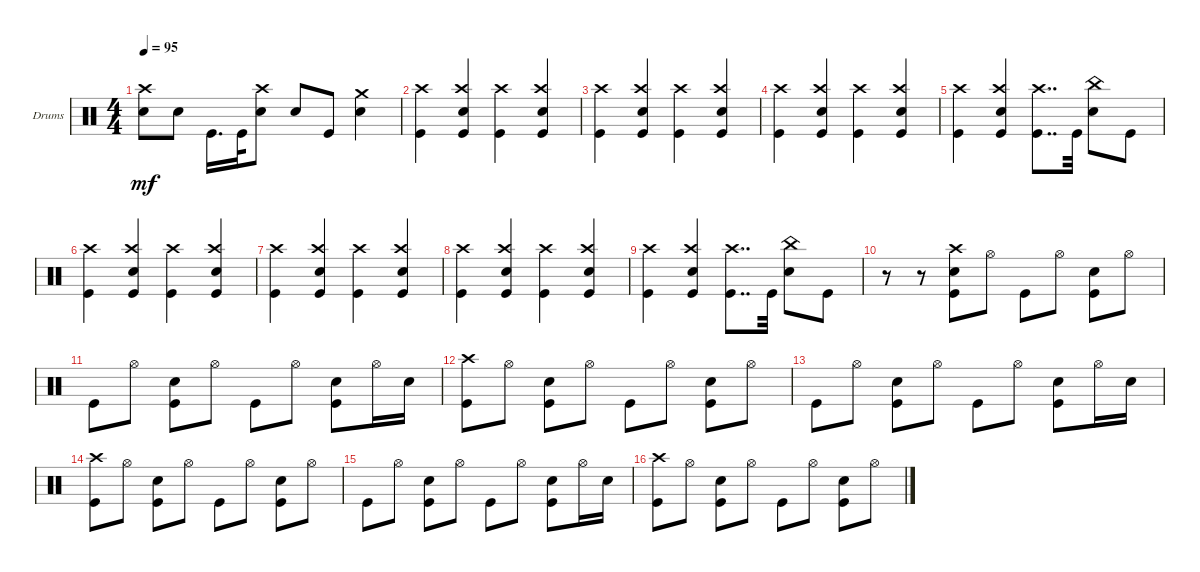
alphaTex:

\defaultSystemsLayout 4
\bracketExtendMode groupsimilarinstruments
\firstSystemTrackNameOrientation horizontal
\otherSystemsTrackNameOrientation horizontal
\track ("Drumkit" "Drums") {instrument percussion}
\staff {score}
\articulation defaults
\ts (4 4)
\tempo 95
\clef neutral
\ks c
("Snare (hit) 2" "Crash high (hit)").8{dy mf} "Snare (hit) 2".8 "Kick (hit)".16{d} "Kick (hit)".32 ("Crash high (hit)" "Snare (hit) 2").8 "Snare (hit) 2".8 "Kick (hit)".8 ("Snare (hit) 2" "Crash medium (hit)").4 |
("Crash high (hit)" "Kick (hit)").4 ("Crash high (hit)" "Snare (hit) 2" "Kick (hit)").4 ("Crash high (hit)" "Kick (hit)").4 ("Crash high (hit)" "Snare (hit) 2" "Kick (hit)").4 |
("Crash high (hit)" "Kick (hit)").4 ("Crash high (hit)" "Snare (hit) 2" "Kick (hit)").4 ("Crash high (hit)" "Kick (hit)").4 ("Crash high (hit)" "Snare (hit) 2" "Kick (hit)").4 |
("Crash high (hit)" "Kick (hit)").4 ("Crash high (hit)" "Snare (hit) 2" "Kick (hit)").4 ("Crash high (hit)" "Kick (hit)").4 ("Crash high (hit)" "Snare (hit) 2" "Kick (hit)").4 |
("Crash high (hit)" "Kick (hit)").4 ("Crash high (hit)" "Snare (hit) 2" "Kick (hit)").4 ("Crash high (hit)" "Kick (hit)").8{dd} "Kick (hit)".32 ("Snare (hit) 2" "China (hit)").8 "Kick (hit)".8 |
("Crash high (hit)" "Kick (hit)").4 ("Crash high (hit)" "Snare (hit) 2" "Kick (hit)").4 ("Crash high (hit)" "Kick (hit)").4 ("Crash high (hit)" "Snare (hit) 2" "Kick (hit)").4 |
("Crash high (hit)" "Kick (hit)").4 ("Crash high (hit)" "Snare (hit) 2" "Kick (hit)").4 ("Crash high (hit)" "Kick (hit)").4 ("Crash high (hit)" "Snare (hit) 2" "Kick (hit)").4 |
("Crash high (hit)" "Kick (hit)").4 ("Crash high (hit)" "Snare (hit) 2" "Kick (hit)").4 ("Crash high (hit)" "Kick (hit)").4 ("Crash high (hit)" "Snare (hit) 2" "Kick (hit)").4 |
("Crash high (hit)" "Kick (hit)").4 ("Crash high (hit)" "Snare (hit) 2" "Kick (hit)").4 ("Crash high (hit)" "Kick (hit)").8{dd} "Kick (hit)".32 ("Snare (hit) 2" "China (hit)").8 "Kick (hit)".8 |
r.8 r.8 ("Snare (hit) 2" "Kick (hit)" "Crash high (hit)").8 "Hi-Hat (open)".8 "Kick (hit)".8 "Hi-Hat (open)".8 ("Snare (hit) 2" "Kick (hit)").8 "Hi-Hat (open)".8 |
"Kick (hit)".8 "Hi-Hat (open)".8 ("Snare (hit) 2" "Kick (hit)").8 "Hi-Hat (open)".8 "Kick (hit)".8 "Hi-Hat (open)".8 ("Snare (hit) 2" "Kick (hit)").8 "Hi-Hat (open)".16 "Snare (hit) 2".16 |
("Crash high (hit)" "Kick (hit)").8 "Hi-Hat (open)".8 ("Snare (hit) 2" "Kick (hit)").8 "Hi-Hat (open)".8 "Kick (hit)".8 "Hi-Hat (open)".8 ("Snare (hit) 2" "Kick (hit)").8 "Hi-Hat (open)".8 |
"Kick (hit)".8 "Hi-Hat (open)".8 ("Snare (hit) 2" "Kick (hit)").8 "Hi-Hat (open)".8 "Kick (hit)".8 "Hi-Hat (open)".8 ("Snare (hit) 2" "Kick (hit)").8 "Hi-Hat (open)".16 "Snare (hit) 2".16 |
("Crash high (hit)" "Kick (hit)").8 "Hi-Hat (open)".8 ("Snare (hit) 2" "Kick (hit)").8 "Hi-Hat (open)".8 "Kick (hit)".8 "Hi-Hat (open)".8 ("Snare (hit) 2" "Kick (hit)").8 "Hi-Hat (open)".8 |
"Kick (hit)".8 "Hi-Hat (open)".8 ("Snare (hit) 2" "Kick (hit)").8 "Hi-Hat (open)".8 "Kick (hit)".8 "Hi-Hat (open)".8 ("Snare (hit) 2" "Kick (hit)").8 "Hi-Hat (open)".16 "Snare (hit) 2".16 |
("Crash high (hit)" "Kick (hit)").8 "Hi-Hat (open)".8 ("Snare (hit) 2" "Kick (hit)").8 "Hi-Hat (open)".8 "Kick (hit)".8 "Hi-Hat (open)".8 ("Snare (hit) 2" "Kick (hit)").8 "Hi-Hat (open)".8
